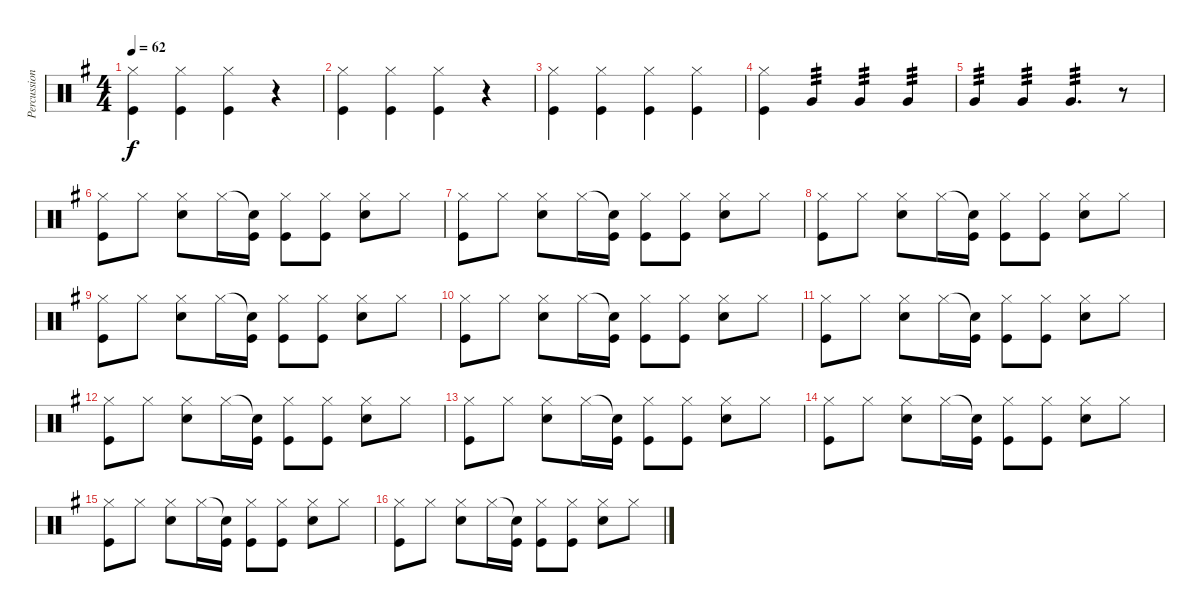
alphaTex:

\track ("Percussions" "Percussion") {instrument percussion}
\staff {score}
\articulation defaults
\ts (4 4)
\tempo 62
\clef neutral
\ks g
("Hi-Hat (closed)" "Kick (hit)").4{dy f} ("Hi-Hat (closed)" "Kick (hit)").4 ("Hi-Hat (closed)" "Kick (hit)").4 r.4 |
("Hi-Hat (closed)" "Kick (hit)").4 ("Hi-Hat (closed)" "Kick (hit)").4 ("Hi-Hat (closed)" "Kick (hit)").4 r.4 |
("Hi-Hat (closed)" "Kick (hit)").4 ("Hi-Hat (closed)" "Kick (hit)").4 ("Hi-Hat (closed)" "Kick (hit)").4 ("Hi-Hat (closed)" "Kick (hit)").4 |
("Hi-Hat (closed)" "Kick (hit)").4 "Very Low Tom (hit)".4{tp 3} "Very Low Tom (hit)".4{tp 3} "Very Low Tom (hit)".4{tp 3} |
"Very Low Tom (hit)".4{tp 3} "Very Low Tom (hit)".4{tp 3} "Very Low Tom (hit)".4{d tp 3} r.8 |
("Hi-Hat (closed)" "Kick (hit)").8 "Hi-Hat (closed)".8 ("Hi-Hat (closed)" "Snare (hit) 2").8 "Hi-Hat (closed)".16 ("Snare (hit)"{t} "Kick (hit)").16 ("Hi-Hat (closed)" "Kick (hit)").8 ("Hi-Hat (closed)" "Kick (hit)").8 ("Hi-Hat (closed)" "Snare (hit) 2").8 "Hi-Hat (closed)".8 |
("Hi-Hat (closed)" "Kick (hit)").8 "Hi-Hat (closed)".8 ("Hi-Hat (closed)" "Snare (hit) 2").8 "Hi-Hat (closed)".16 ("Snare (hit)"{t} "Kick (hit)").16 ("Hi-Hat (closed)" "Kick (hit)").8 ("Hi-Hat (closed)" "Kick (hit)").8 ("Hi-Hat (closed)" "Snare (hit) 2").8 "Hi-Hat (closed)".8 |
("Hi-Hat (closed)" "Kick (hit)").8 "Hi-Hat (closed)".8 ("Hi-Hat (closed)" "Snare (hit) 2").8 "Hi-Hat (closed)".16 ("Snare (hit)"{t} "Kick (hit)").16 ("Hi-Hat (closed)" "Kick (hit)").8 ("Hi-Hat (closed)" "Kick (hit)").8 ("Hi-Hat (closed)" "Snare (hit) 2").8 "Hi-Hat (closed)".8 |
("Hi-Hat (closed)" "Kick (hit)").8 "Hi-Hat (closed)".8 ("Hi-Hat (closed)" "Snare (hit) 2").8 "Hi-Hat (closed)".16 ("Snare (hit)"{t} "Kick (hit)").16 ("Hi-Hat (closed)" "Kick (hit)").8 ("Hi-Hat (closed)" "Kick (hit)").8 ("Hi-Hat (closed)" "Snare (hit) 2").8 "Hi-Hat (closed)".8 |
("Hi-Hat (closed)" "Kick (hit)").8 "Hi-Hat (closed)".8 ("Hi-Hat (closed)" "Snare (hit) 2").8 "Hi-Hat (closed)".16 ("Snare (hit)"{t} "Kick (hit)").16 ("Hi-Hat (closed)" "Kick (hit)").8 ("Hi-Hat (closed)" "Kick (hit)").8 ("Hi-Hat (closed)" "Snare (hit) 2").8 "Hi-Hat (closed)".8 |
("Hi-Hat (closed)" "Kick (hit)").8 "Hi-Hat (closed)".8 ("Hi-Hat (closed)" "Snare (hit) 2").8 "Hi-Hat (closed)".16 ("Snare (hit)"{t} "Kick (hit)").16 ("Hi-Hat (closed)" "Kick (hit)").8 ("Hi-Hat (closed)" "Kick (hit)").8 ("Hi-Hat (closed)" "Snare (hit) 2").8 "Hi-Hat (closed)".8 |
("Hi-Hat (closed)" "Kick (hit)").8 "Hi-Hat (closed)".8 ("Hi-Hat (closed)" "Snare (hit) 2").8 "Hi-Hat (closed)".16 ("Snare (hit)"{t} "Kick (hit)").16 ("Hi-Hat (closed)" "Kick (hit)").8 ("Hi-Hat (closed)" "Kick (hit)").8 ("Hi-Hat (closed)" "Snare (hit) 2").8 "Hi-Hat (closed)".8 |
("Hi-Hat (closed)" "Kick (hit)").8 "Hi-Hat (closed)".8 ("Hi-Hat (closed)" "Snare (hit) 2").8 "Hi-Hat (closed)".16 ("Snare (hit)"{t} "Kick (hit)").16 ("Hi-Hat (closed)" "Kick (hit)").8 ("Hi-Hat (closed)" "Kick (hit)").8 ("Hi-Hat (closed)" "Snare (hit) 2").8 "Hi-Hat (closed)".8 |
("Hi-Hat (closed)" "Kick (hit)").8 "Hi-Hat (closed)".8 ("Hi-Hat (closed)" "Snare (hit) 2").8 "Hi-Hat (closed)".16 ("Snare (hit)"{t} "Kick (hit)").16 ("Hi-Hat (closed)" "Kick (hit)").8 ("Hi-Hat (closed)" "Kick (hit)").8 ("Hi-Hat (closed)" "Snare (hit) 2").8 "Hi-Hat (closed)".8 |
("Hi-Hat (closed)" "Kick (hit)").8 "Hi-Hat (closed)".8 ("Hi-Hat (closed)" "Snare (hit) 2").8 "Hi-Hat (closed)".16 ("Snare (hit)"{t} "Kick (hit)").16 ("Hi-Hat (closed)" "Kick (hit)").8 ("Hi-Hat (closed)" "Kick (hit)").8 ("Hi-Hat (closed)" "Snare (hit) 2").8 "Hi-Hat (closed)".8 |
("Hi-Hat (closed)" "Kick (hit)").8 "Hi-Hat (closed)".8 ("Hi-Hat (closed)" "Snare (hit) 2").8 "Hi-Hat (closed)".16 ("Snare (hit)"{t} "Kick (hit)").16 ("Hi-Hat (closed)" "Kick (hit)").8 ("Hi-Hat (closed)" "Kick (hit)").8 ("Hi-Hat (closed)" "Snare (hit) 2").8 "Hi-Hat (closed)".8
